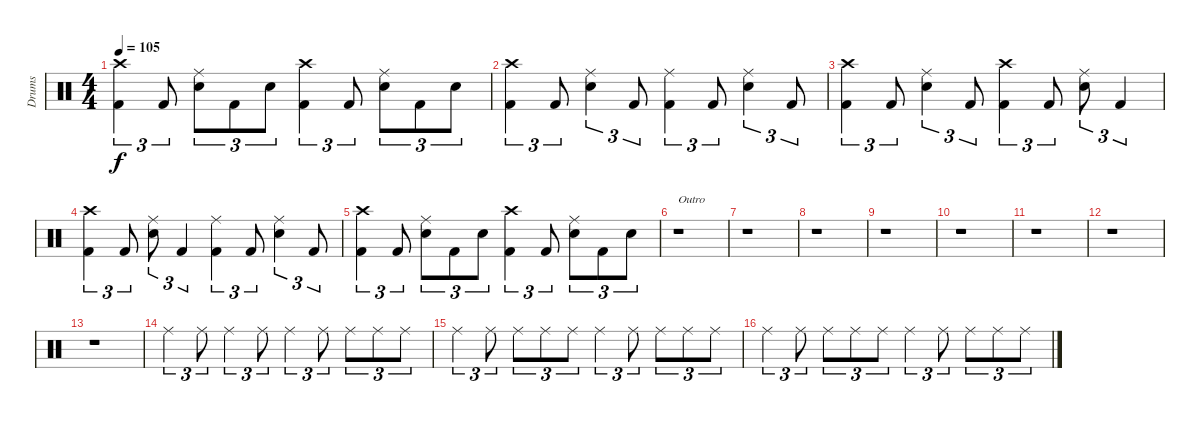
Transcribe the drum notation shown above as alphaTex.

\track ("Drums" "Drums") {instrument percussion}
\staff {score}
\articulation defaults
\ts (4 4)
\tempo 105
\clef neutral
\ks c
("Crash high (hit)" "Kick (hit) 2").4{tu (3 2) dy f} "Kick (hit) 2".8{tu (3 2)} ("Ride (middle)" "Snare (hit) 2").8{tu (3 2)} "Kick (hit) 2".8{tu (3 2)} "Snare (hit) 2".8{tu (3 2)} ("Crash high (hit)" "Kick (hit) 2").4{tu (3 2)} "Kick (hit) 2".8{tu (3 2)} ("Ride (middle)" "Snare (hit) 2").8{tu (3 2)} "Kick (hit) 2".8{tu (3 2)} "Snare (hit) 2".8{tu (3 2)} |
("Crash high (hit)" "Kick (hit) 2").4{tu (3 2)} "Kick (hit) 2".8{tu (3 2)} ("Ride (middle)" "Snare (hit) 2").4{tu (3 2)} "Kick (hit) 2".8{tu (3 2)} ("Ride (middle)" "Kick (hit) 2").4{tu (3 2)} "Kick (hit) 2".8{tu (3 2)} ("Ride (middle)" "Snare (hit) 2").4{tu (3 2)} "Kick (hit) 2".8{tu (3 2)} |
("Crash high (hit)" "Kick (hit) 2").4{tu (3 2)} "Kick (hit) 2".8{tu (3 2)} ("Ride (middle)" "Snare (hit) 2").4{tu (3 2)} "Kick (hit) 2".8{tu (3 2)} ("Crash high (hit)" "Kick (hit) 2").4{tu (3 2)} "Kick (hit) 2".8{tu (3 2)} ("Ride (middle)" "Snare (hit) 2").8{tu (3 2)} "Kick (hit) 2".4{tu (3 2)} |
("Crash high (hit)" "Kick (hit) 2").4{tu (3 2)} "Kick (hit) 2".8{tu (3 2)} ("Ride (middle)" "Snare (hit) 2").8{tu (3 2)} "Kick (hit) 2".4{tu (3 2)} ("Ride (middle)" "Kick (hit) 2").4{tu (3 2)} "Kick (hit) 2".8{tu (3 2)} ("Ride (middle)" "Snare (hit) 2").4{tu (3 2)} "Kick (hit) 2".8{tu (3 2)} |
("Crash high (hit)" "Kick (hit) 2").4{tu (3 2)} "Kick (hit) 2".8{tu (3 2)} ("Ride (middle)" "Snare (hit) 2").8{tu (3 2)} "Kick (hit) 2".8{tu (3 2)} "Snare (hit) 2".8{tu (3 2)} ("Crash high (hit)" "Kick (hit) 2").4{tu (3 2)} "Kick (hit) 2".8{tu (3 2)} ("Ride (middle)" "Snare (hit) 2").8{tu (3 2)} "Kick (hit) 2".8{tu (3 2)} "Snare (hit) 2".8{tu (3 2)} |
r.1{txt "Outro"} |
r.1 |
r.1 |
r.1 |
r.1 |
r.1 |
r.1 |
r.1 |
"Ride (middle)".4{tu (3 2)} "Ride (middle)".8{tu (3 2)} "Ride (middle)".4{tu (3 2)} "Ride (middle)".8{tu (3 2)} "Ride (middle)".4{tu (3 2)} "Ride (middle)".8{tu (3 2)} "Ride (middle)".8{tu (3 2)} "Ride (middle)".8{tu (3 2)} "Ride (middle)".8{tu (3 2)} |
"Ride (middle)".4{tu (3 2)} "Ride (middle)".8{tu (3 2)} "Ride (middle)".8{tu (3 2)} "Ride (middle)".8{tu (3 2)} "Ride (middle)".8{tu (3 2)} "Ride (middle)".4{tu (3 2)} "Ride (middle)".8{tu (3 2)} "Ride (middle)".8{tu (3 2)} "Ride (middle)".8{tu (3 2)} "Ride (middle)".8{tu (3 2)} |
"Ride (middle)".4{tu (3 2)} "Ride (middle)".8{tu (3 2)} "Ride (middle)".8{tu (3 2)} "Ride (middle)".8{tu (3 2)} "Ride (middle)".8{tu (3 2)} "Ride (middle)".4{tu (3 2)} "Ride (middle)".8{tu (3 2)} "Ride (middle)".8{tu (3 2)} "Ride (middle)".8{tu (3 2)} "Ride (middle)".8{tu (3 2)}
